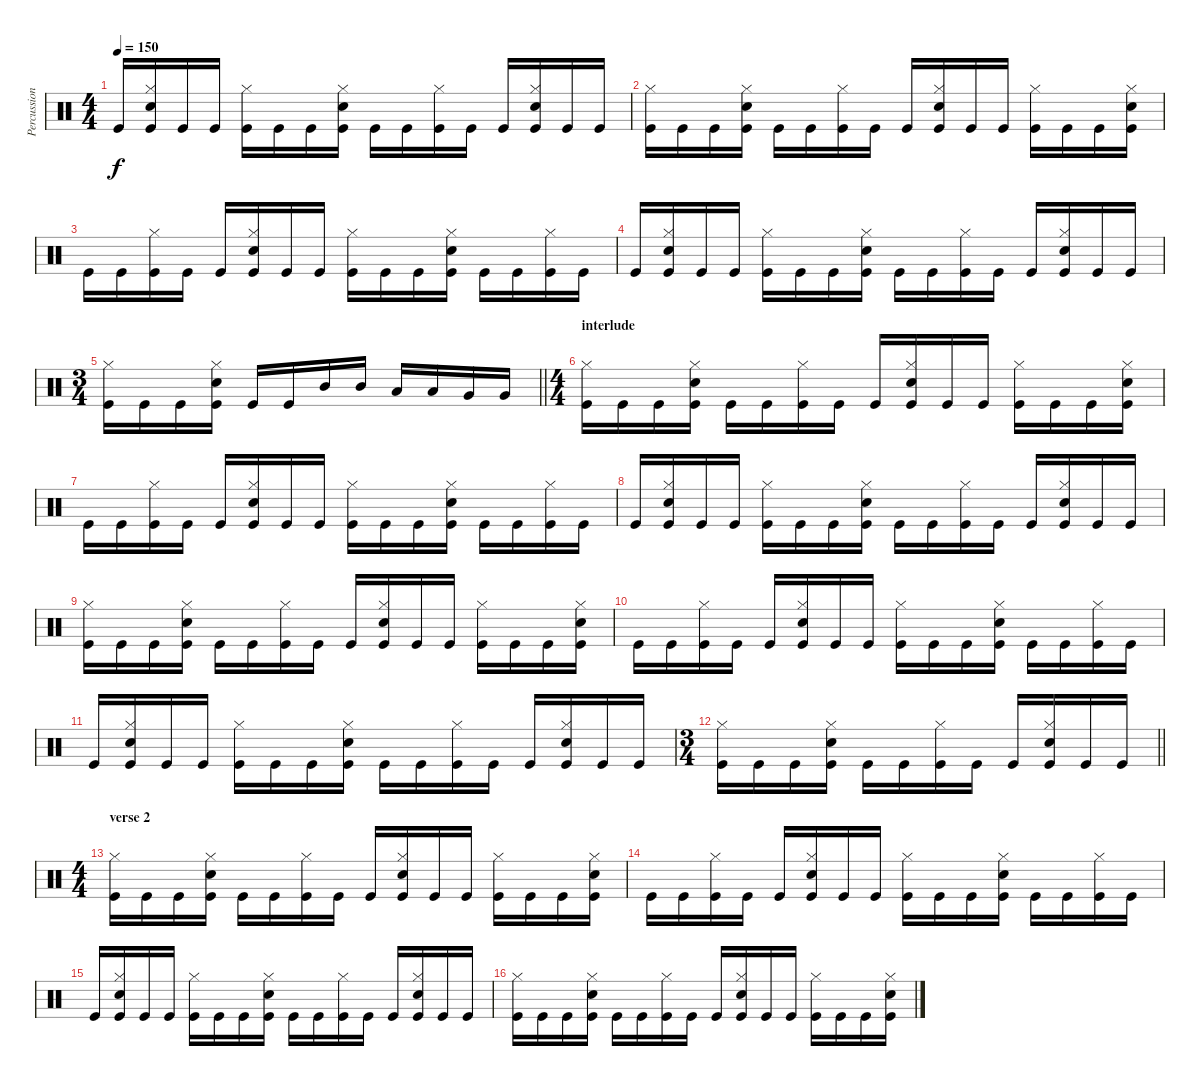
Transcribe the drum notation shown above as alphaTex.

\track ("Percussion" "Percussion") {instrument percussion}
\staff {score}
\articulation defaults
\ts (4 4)
\tempo 150
\clef neutral
\ks c "Kick (hit)".16{dy f}
("Hi-Hat (closed)" "Kick (hit)" "Snare (hit) 2").16 "Kick (hit)".16 "Kick (hit)".16 ("Hi-Hat (closed)" "Kick (hit)").16 "Kick (hit)".16 "Kick (hit)".16 ("Hi-Hat (closed)" "Kick (hit)" "Snare (hit) 2").16 "Kick (hit)".16 "Kick (hit)".16 ("Hi-Hat (closed)" "Kick (hit)").16 "Kick (hit)".16 "Kick (hit)".16 ("Hi-Hat (closed)" "Kick (hit)" "Snare (hit) 2").16 "Kick (hit)".16 "Kick (hit)".16 |
("Hi-Hat (closed)" "Kick (hit)").16 "Kick (hit)".16 "Kick (hit)".16 ("Hi-Hat (closed)" "Kick (hit)" "Snare (hit) 2").16 "Kick (hit)".16 "Kick (hit)".16 ("Hi-Hat (closed)" "Kick (hit)").16 "Kick (hit)".16 "Kick (hit)".16 ("Hi-Hat (closed)" "Kick (hit)" "Snare (hit) 2").16 "Kick (hit)".16 "Kick (hit)".16 ("Hi-Hat (closed)" "Kick (hit)").16 "Kick (hit)".16 "Kick (hit)".16 ("Hi-Hat (closed)" "Kick (hit)" "Snare (hit) 2").16 |
"Kick (hit)".16 "Kick (hit)".16 ("Hi-Hat (closed)" "Kick (hit)").16 "Kick (hit)".16 "Kick (hit)".16 ("Hi-Hat (closed)" "Kick (hit)" "Snare (hit) 2").16 "Kick (hit)".16 "Kick (hit)".16 ("Hi-Hat (closed)" "Kick (hit)").16 "Kick (hit)".16 "Kick (hit)".16 ("Hi-Hat (closed)" "Kick (hit)" "Snare (hit) 2").16 "Kick (hit)".16 "Kick (hit)".16 ("Hi-Hat (closed)" "Kick (hit)").16 "Kick (hit)".16 |
"Kick (hit)".16 ("Hi-Hat (closed)" "Kick (hit)" "Snare (hit) 2").16 "Kick (hit)".16 "Kick (hit)".16 ("Hi-Hat (closed)" "Kick (hit)").16 "Kick (hit)".16 "Kick (hit)".16 ("Hi-Hat (closed)" "Kick (hit)" "Snare (hit) 2").16 "Kick (hit)".16 "Kick (hit)".16 ("Hi-Hat (closed)" "Kick (hit)").16 "Kick (hit)".16 "Kick (hit)".16 ("Hi-Hat (closed)" "Kick (hit)" "Snare (hit) 2").16 "Kick (hit)".16 "Kick (hit)".16 |
\ts (3 4)
\barLineRight lightlight
("Hi-Hat (closed)" "Kick (hit)").16 "Kick (hit)".16 "Kick (hit)".16 ("Hi-Hat (closed)" "Kick (hit)" "Snare (hit) 2").16 "Kick (hit)".16 "Kick (hit)".16 "Mid Tom (hit)".16 "Mid Tom (hit)".16 "Low Tom (hit)".16 "Low Tom (hit)".16 "Very Low Tom (hit)".16 "Very Low Tom (hit)".16 |
\ts (4 4)
\section ("" "interlude")
("Hi-Hat (closed)" "Kick (hit)").16 "Kick (hit)".16 "Kick (hit)".16 ("Hi-Hat (closed)" "Kick (hit)" "Snare (hit) 2").16 "Kick (hit)".16 "Kick (hit)".16 ("Hi-Hat (closed)" "Kick (hit)").16 "Kick (hit)".16 "Kick (hit)".16 ("Hi-Hat (closed)" "Kick (hit)" "Snare (hit) 2").16 "Kick (hit)".16 "Kick (hit)".16 ("Hi-Hat (closed)" "Kick (hit)").16 "Kick (hit)".16 "Kick (hit)".16 ("Hi-Hat (closed)" "Kick (hit)" "Snare (hit) 2").16 |
"Kick (hit)".16 "Kick (hit)".16 ("Hi-Hat (closed)" "Kick (hit)").16 "Kick (hit)".16 "Kick (hit)".16 ("Hi-Hat (closed)" "Kick (hit)" "Snare (hit) 2").16 "Kick (hit)".16 "Kick (hit)".16 ("Hi-Hat (closed)" "Kick (hit)").16 "Kick (hit)".16 "Kick (hit)".16 ("Hi-Hat (closed)" "Kick (hit)" "Snare (hit) 2").16 "Kick (hit)".16 "Kick (hit)".16 ("Hi-Hat (closed)" "Kick (hit)").16 "Kick (hit)".16 |
"Kick (hit)".16 ("Hi-Hat (closed)" "Kick (hit)" "Snare (hit) 2").16 "Kick (hit)".16 "Kick (hit)".16 ("Hi-Hat (closed)" "Kick (hit)").16 "Kick (hit)".16 "Kick (hit)".16 ("Hi-Hat (closed)" "Kick (hit)" "Snare (hit) 2").16 "Kick (hit)".16 "Kick (hit)".16 ("Hi-Hat (closed)" "Kick (hit)").16 "Kick (hit)".16 "Kick (hit)".16 ("Hi-Hat (closed)" "Kick (hit)" "Snare (hit) 2").16 "Kick (hit)".16 "Kick (hit)".16 |
("Hi-Hat (closed)" "Kick (hit)").16 "Kick (hit)".16 "Kick (hit)".16 ("Hi-Hat (closed)" "Kick (hit)" "Snare (hit) 2").16 "Kick (hit)".16 "Kick (hit)".16 ("Hi-Hat (closed)" "Kick (hit)").16 "Kick (hit)".16 "Kick (hit)".16 ("Hi-Hat (closed)" "Kick (hit)" "Snare (hit) 2").16 "Kick (hit)".16 "Kick (hit)".16 ("Hi-Hat (closed)" "Kick (hit)").16 "Kick (hit)".16 "Kick (hit)".16 ("Hi-Hat (closed)" "Kick (hit)" "Snare (hit) 2").16 |
"Kick (hit)".16 "Kick (hit)".16 ("Hi-Hat (closed)" "Kick (hit)").16 "Kick (hit)".16 "Kick (hit)".16 ("Hi-Hat (closed)" "Kick (hit)" "Snare (hit) 2").16 "Kick (hit)".16 "Kick (hit)".16 ("Hi-Hat (closed)" "Kick (hit)").16 "Kick (hit)".16 "Kick (hit)".16 ("Hi-Hat (closed)" "Kick (hit)" "Snare (hit) 2").16 "Kick (hit)".16 "Kick (hit)".16 ("Hi-Hat (closed)" "Kick (hit)").16 "Kick (hit)".16 |
"Kick (hit)".16 ("Hi-Hat (closed)" "Kick (hit)" "Snare (hit) 2").16 "Kick (hit)".16 "Kick (hit)".16 ("Hi-Hat (closed)" "Kick (hit)").16 "Kick (hit)".16 "Kick (hit)".16 ("Hi-Hat (closed)" "Kick (hit)" "Snare (hit) 2").16 "Kick (hit)".16 "Kick (hit)".16 ("Hi-Hat (closed)" "Kick (hit)").16 "Kick (hit)".16 "Kick (hit)".16 ("Hi-Hat (closed)" "Kick (hit)" "Snare (hit) 2").16 "Kick (hit)".16 "Kick (hit)".16 |
\ts (3 4)
\barLineRight lightlight
("Hi-Hat (closed)" "Kick (hit)").16 "Kick (hit)".16 "Kick (hit)".16 ("Hi-Hat (closed)" "Kick (hit)" "Snare (hit) 2").16 "Kick (hit)".16 "Kick (hit)".16 ("Hi-Hat (closed)" "Kick (hit)").16 "Kick (hit)".16 "Kick (hit)".16 ("Hi-Hat (closed)" "Kick (hit)" "Snare (hit) 2").16 "Kick (hit)".16 "Kick (hit)".16 |
\ts (4 4)
\section ("" "verse 2")
("Hi-Hat (closed)" "Kick (hit)").16 "Kick (hit)".16 "Kick (hit)".16 ("Hi-Hat (closed)" "Kick (hit)" "Snare (hit) 2").16 "Kick (hit)".16 "Kick (hit)".16 ("Hi-Hat (closed)" "Kick (hit)").16 "Kick (hit)".16 "Kick (hit)".16 ("Hi-Hat (closed)" "Kick (hit)" "Snare (hit) 2").16 "Kick (hit)".16 "Kick (hit)".16 ("Hi-Hat (closed)" "Kick (hit)").16 "Kick (hit)".16 "Kick (hit)".16 ("Hi-Hat (closed)" "Kick (hit)" "Snare (hit) 2").16 |
"Kick (hit)".16 "Kick (hit)".16 ("Hi-Hat (closed)" "Kick (hit)").16 "Kick (hit)".16 "Kick (hit)".16 ("Hi-Hat (closed)" "Kick (hit)" "Snare (hit) 2").16 "Kick (hit)".16 "Kick (hit)".16 ("Hi-Hat (closed)" "Kick (hit)").16 "Kick (hit)".16 "Kick (hit)".16 ("Hi-Hat (closed)" "Kick (hit)" "Snare (hit) 2").16 "Kick (hit)".16 "Kick (hit)".16 ("Hi-Hat (closed)" "Kick (hit)").16 "Kick (hit)".16 |
"Kick (hit)".16 ("Hi-Hat (closed)" "Kick (hit)" "Snare (hit) 2").16 "Kick (hit)".16 "Kick (hit)".16 ("Hi-Hat (closed)" "Kick (hit)").16 "Kick (hit)".16 "Kick (hit)".16 ("Hi-Hat (closed)" "Kick (hit)" "Snare (hit) 2").16 "Kick (hit)".16 "Kick (hit)".16 ("Hi-Hat (closed)" "Kick (hit)").16 "Kick (hit)".16 "Kick (hit)".16 ("Hi-Hat (closed)" "Kick (hit)" "Snare (hit) 2").16 "Kick (hit)".16 "Kick (hit)".16 |
("Hi-Hat (closed)" "Kick (hit)").16 "Kick (hit)".16 "Kick (hit)".16 ("Hi-Hat (closed)" "Kick (hit)" "Snare (hit) 2").16 "Kick (hit)".16 "Kick (hit)".16 ("Hi-Hat (closed)" "Kick (hit)").16 "Kick (hit)".16 "Kick (hit)".16 ("Hi-Hat (closed)" "Kick (hit)" "Snare (hit) 2").16 "Kick (hit)".16 "Kick (hit)".16 ("Hi-Hat (closed)" "Kick (hit)").16 "Kick (hit)".16 "Kick (hit)".16 ("Hi-Hat (closed)" "Kick (hit)" "Snare (hit) 2").16
